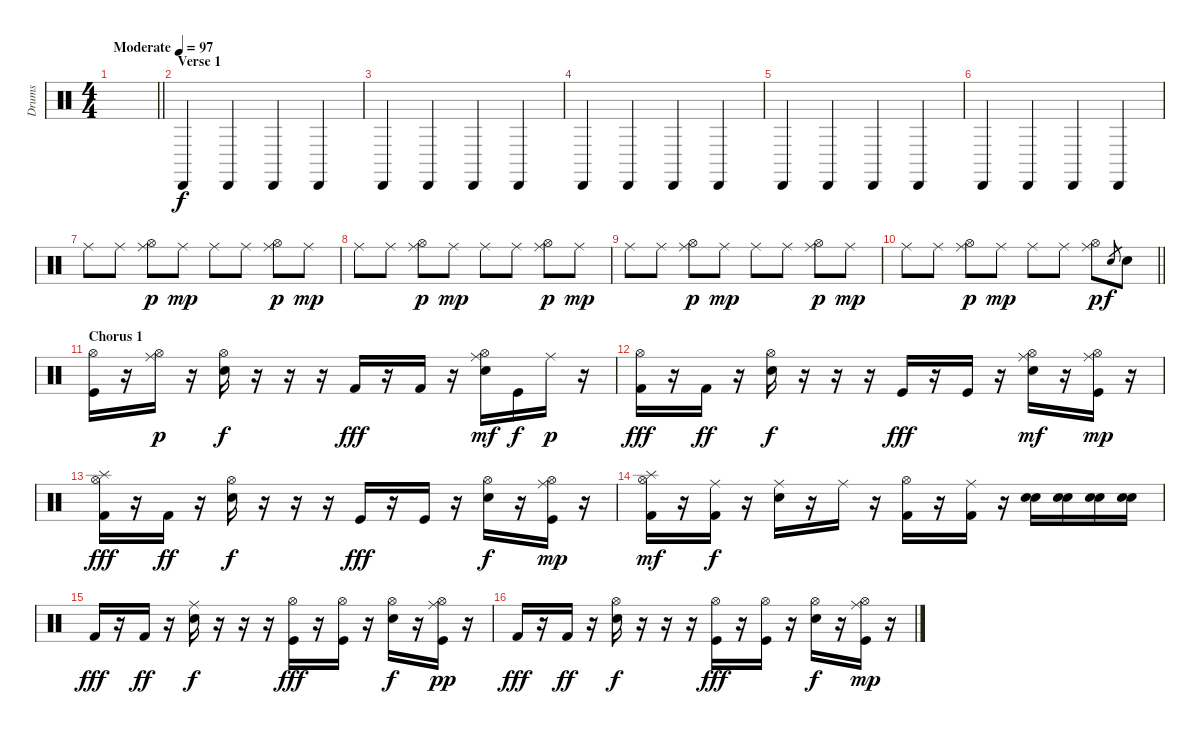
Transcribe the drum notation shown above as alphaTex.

\track ("Drums" "Drums") {instrument percussion}
\staff {score}
\articulation defaults
\ts (4 4)
\tempo (97 "Moderate")
\clef neutral
\barLineRight lightlight
\ks c
|
\section ("" "Verse 1")
"Cabasa (hit)".4 "Cabasa (hit)".4 "Cabasa (hit)".4 "Cabasa (hit)".4 |
"Cabasa (hit)".4 "Cabasa (hit)".4 "Cabasa (hit)".4 "Cabasa (hit)".4 |
"Cabasa (hit)".4 "Cabasa (hit)".4 "Cabasa (hit)".4 "Cabasa (hit)".4 |
"Cabasa (hit)".4 "Cabasa (hit)".4 "Cabasa (hit)".4 "Cabasa (hit)".4 |
"Cabasa (hit)".4 "Cabasa (hit)".4 "Cabasa (hit)".4 "Cabasa (hit)".4 |
"Ride (middle)".8 "Ride (middle)".8 ("Ride (middle)" "Hi-Hat (open)").8{dy p} "Ride (middle)".8{dy mp} "Ride (middle)".8 "Ride (middle)".8 ("Ride (middle)" "Hi-Hat (open)").8{dy p} "Ride (middle)".8{dy mp} |
"Ride (middle)".8 "Ride (middle)".8 ("Ride (middle)" "Hi-Hat (open)").8{dy p} "Ride (middle)".8{dy mp} "Ride (middle)".8 "Ride (middle)".8 ("Ride (middle)" "Hi-Hat (open)").8{dy p} "Ride (middle)".8{dy mp} |
"Ride (middle)".8 "Ride (middle)".8 ("Ride (middle)" "Hi-Hat (open)").8{dy p} "Ride (middle)".8{dy mp} "Ride (middle)".8 "Ride (middle)".8 ("Ride (middle)" "Hi-Hat (open)").8{dy p} "Ride (middle)".8{dy mp} |
\barLineRight lightlight "Ride (middle)".8 "Ride (middle)".8
("Ride (middle)" "Hi-Hat (open)").8{dy p} "Ride (middle)".8{dy mp} "Ride (middle)".8 "Ride (middle)".8 ("Ride (middle)" "Hi-Hat (open)").8{dy p} "Electric Snare (hit)".8{gr dy f} "Electric Snare (hit)".8 |
\section ("" "Chorus 1")
("Hi-Hat (open)" "Kick (hit)").16 r.16 ("Ride (middle)" "Hi-Hat (open)").16{dy p} r.16 ("Hi-Hat (open)" "Electric Snare (hit)").16{dy f} r.16 r.16 r.16 "Kick (hit) 2".16{dy fff} r.16 "Kick (hit) 2".16 r.16 ("Hi-Hat (open)" "Ride (middle)" "Electric Snare (hit)").16{dy mf} "Kick (hit)".16{dy f} "Ride (middle)".16{dy p} r.16 |
("Hi-Hat (open)" "Kick (hit) 2").16{dy fff} r.16 "Kick (hit) 2".16{dy ff} r.16 ("Hi-Hat (open)" "Electric Snare (hit)").16{dy f} r.16 r.16 r.16 "Kick (hit)".16{dy fff} r.16 "Kick (hit)".16 r.16 ("Hi-Hat (open)" "Ride (middle)" "Electric Snare (hit)").16{dy mf} r.16 ("Ride (middle)" "Hi-Hat (open)" "Kick (hit)").16{dy mp} r.16 |
("Hi-Hat (open)" "Splash (hit)" "Kick (hit) 2").16{dy fff} r.16 "Kick (hit) 2".16{dy ff} r.16 ("Hi-Hat (open)" "Electric Snare (hit)").16{dy f} r.16 r.16 r.16 "Kick (hit)".16{dy fff} r.16 "Kick (hit)".16 r.16 ("Hi-Hat (open)" "Electric Snare (hit)").16{dy f} r.16 ("Ride (middle)" "Hi-Hat (open)" "Kick (hit)").16{dy mp} r.16 |
("Hi-Hat (open)" "Splash (hit)" "Kick (hit) 2").16{dy mf} r.16 ("Ride (middle)" "Kick (hit) 2").16{dy f} r.16 ("Ride (middle)" "Electric Snare (hit)").16 r.16 "Ride (middle)".16 r.16 ("Hi-Hat (open)" "Kick (hit) 2").16 r.16 ("Ride (middle)" "Kick (hit) 2").16 r.16 ("Electric Snare (hit)" "Electric Snare (hit)").16 ("Electric Snare (hit)" "Electric Snare (hit)").16 ("Electric Snare (hit)" "Electric Snare (hit)").16 ("Electric Snare (hit)" "Electric Snare (hit)").16 |
"Kick (hit) 2".16{dy fff} r.16 "Kick (hit) 2".16{dy ff} r.16 ("Ride (middle)" "Electric Snare (hit)").16{dy f} r.16 r.16 r.16 ("Hi-Hat (open)" "Kick (hit)").16{dy fff} r.16 ("Hi-Hat (open)" "Kick (hit)").16 r.16 ("Hi-Hat (open)" "Electric Snare (hit)").16{dy f} r.16 ("Ride (middle)" "Hi-Hat (open)" "Kick (hit)").16{dy pp} r.16 |
"Kick (hit) 2".16{dy fff} r.16 "Kick (hit) 2".16{dy ff} r.16 ("Hi-Hat (open)" "Electric Snare (hit)").16{dy f} r.16 r.16 r.16 ("Hi-Hat (open)" "Kick (hit)").16{dy fff} r.16 ("Hi-Hat (open)" "Kick (hit)").16 r.16 ("Hi-Hat (open)" "Electric Snare (hit)").16{dy f} r.16 ("Ride (middle)" "Hi-Hat (open)" "Kick (hit)").16{dy mp} r.16
